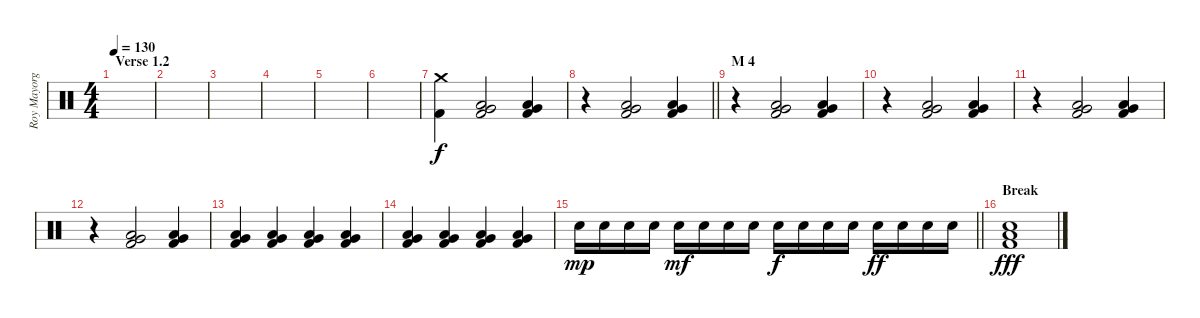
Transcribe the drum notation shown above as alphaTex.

\track ("Roy Mayorga" "Roy Mayorg") {instrument percussion}
\staff {score}
\articulation defaults
\ts (4 4)
\section ("" "Verse 1.2")
\tempo 130
\clef neutral
\ks c
|
|
|
|
|
|
("Crash medium (hit)" "Kick (hit) 2").4 ("Very Low Tom (hit)" "Low Floor Tom (hit)" "Kick (hit) 2").2 ("Very Low Tom (hit)" "Low Floor Tom (hit)" "Kick (hit) 2").4 |
\barLineRight lightlight
r.4 ("Very Low Tom (hit)" "Low Floor Tom (hit)" "Kick (hit) 2").2 ("Very Low Tom (hit)" "Low Floor Tom (hit)" "Kick (hit) 2").4 |
\section ("" "M 4")
r.4 ("Very Low Tom (hit)" "Low Floor Tom (hit)" "Kick (hit) 2").2 ("Very Low Tom (hit)" "Low Floor Tom (hit)" "Kick (hit) 2").4 |
r.4 ("Very Low Tom (hit)" "Low Floor Tom (hit)" "Kick (hit) 2").2 ("Very Low Tom (hit)" "Low Floor Tom (hit)" "Kick (hit) 2").4 |
r.4 ("Very Low Tom (hit)" "Low Floor Tom (hit)" "Kick (hit) 2").2 ("Very Low Tom (hit)" "Low Floor Tom (hit)" "Kick (hit) 2").4 |
r.4 ("Very Low Tom (hit)" "Low Floor Tom (hit)" "Kick (hit) 2").2 ("Very Low Tom (hit)" "Low Floor Tom (hit)" "Kick (hit) 2").4 |
("Very Low Tom (hit)" "Low Floor Tom (hit)" "Kick (hit) 2").4 ("Very Low Tom (hit)" "Low Floor Tom (hit)" "Kick (hit) 2").4 ("Very Low Tom (hit)" "Low Floor Tom (hit)" "Kick (hit) 2").4 ("Very Low Tom (hit)" "Low Floor Tom (hit)" "Kick (hit) 2").4 |
("Very Low Tom (hit)" "Low Floor Tom (hit)" "Kick (hit) 2").4 ("Very Low Tom (hit)" "Low Floor Tom (hit)" "Kick (hit) 2").4 ("Very Low Tom (hit)" "Low Floor Tom (hit)" "Kick (hit) 2").4 ("Very Low Tom (hit)" "Low Floor Tom (hit)" "Kick (hit) 2").4 |
\barLineRight lightlight "Electric Snare (hit)".16{dy mp} "Electric Snare (hit)".16 "Electric Snare (hit)".16 "Electric Snare (hit)".16 "Electric Snare (hit)".16{dy mf} "Electric Snare (hit)".16 "Electric Snare (hit)".16 "Electric Snare (hit)".16 "Electric Snare (hit)".16{dy f} "Electric Snare (hit)".16 "Electric Snare (hit)".16 "Electric Snare (hit)".16 "Electric Snare (hit)".16{dy ff} "Electric Snare (hit)".16 "Electric Snare (hit)".16 "Electric Snare (hit)".16
|
\section ("" "Break")
("Electric Snare (hit)" "Low Floor Tom (hit)" "Kick (hit) 2").1{dy fff}
